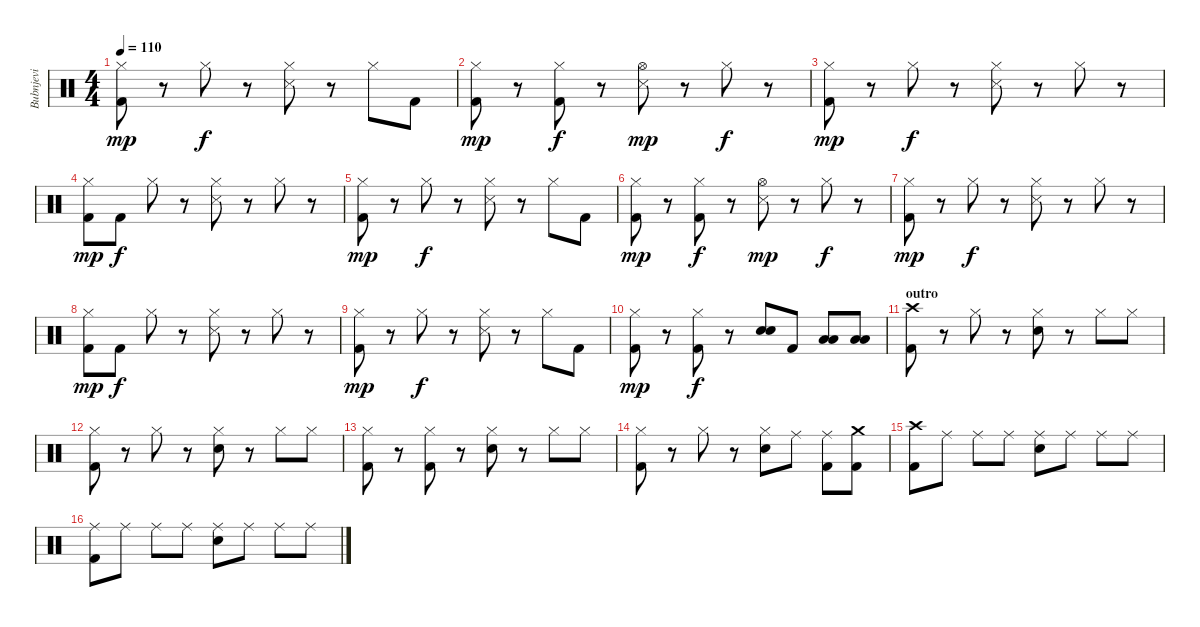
\track ("Bubnjevi" "Bubnjevi") {instrument percussion}
\staff {score}
\articulation defaults
\ts (4 4)
\tempo 110
\clef neutral
\ks c
("Hi-Hat (closed)" "Kick (hit) 2").8{dy mp} r.8 "Hi-Hat (closed)".8{dy f} r.8 ("Hi-Hat (closed)" "Snare (side stick) 3").8 r.8 "Hi-Hat (closed)".8 "Kick (hit) 2".8 |
("Hi-Hat (closed)" "Kick (hit) 2").8{dy mp} r.8 ("Hi-Hat (closed)" "Kick (hit) 2").8{dy f} r.8 ("Hi-Hat (open)" "Snare (side stick) 3").8{dy mp} r.8 "Hi-Hat (closed)".8{dy f} r.8 |
("Hi-Hat (closed)" "Kick (hit) 2").8{dy mp} r.8 "Hi-Hat (closed)".8{dy f} r.8 ("Hi-Hat (closed)" "Snare (side stick) 3").8 r.8 "Hi-Hat (closed)".8 r.8 |
("Hi-Hat (closed)" "Kick (hit) 2").8{dy mp} "Kick (hit) 2".8{dy f} "Hi-Hat (closed)".8 r.8 ("Hi-Hat (closed)" "Snare (side stick) 3").8 r.8 "Hi-Hat (closed)".8 r.8 |
("Hi-Hat (closed)" "Kick (hit) 2").8{dy mp} r.8 "Hi-Hat (closed)".8{dy f} r.8 ("Hi-Hat (closed)" "Snare (side stick) 3").8 r.8 "Hi-Hat (closed)".8 "Kick (hit) 2".8 |
("Hi-Hat (closed)" "Kick (hit) 2").8{dy mp} r.8 ("Hi-Hat (closed)" "Kick (hit) 2").8{dy f} r.8 ("Hi-Hat (open)" "Snare (side stick) 3").8{dy mp} r.8 "Hi-Hat (closed)".8{dy f} r.8 |
("Hi-Hat (closed)" "Kick (hit) 2").8{dy mp} r.8 "Hi-Hat (closed)".8{dy f} r.8 ("Hi-Hat (closed)" "Snare (side stick) 3").8 r.8 "Hi-Hat (closed)".8 r.8 |
("Hi-Hat (closed)" "Kick (hit) 2").8{dy mp} "Kick (hit) 2".8{dy f} "Hi-Hat (closed)".8 r.8 ("Hi-Hat (closed)" "Snare (side stick) 3").8 r.8 "Hi-Hat (closed)".8 r.8 |
("Hi-Hat (closed)" "Kick (hit) 2").8{dy mp} r.8 "Hi-Hat (closed)".8{dy f} r.8 ("Hi-Hat (closed)" "Snare (side stick) 3").8 r.8 "Hi-Hat (closed)".8 "Kick (hit) 2".8 |
("Hi-Hat (closed)" "Kick (hit) 2").8{dy mp} r.8 ("Hi-Hat (closed)" "Kick (hit) 2").8{dy f} r.8 ("Electric Snare (hit)" "Electric Snare (hit)").8{bd 120} "Kick (hit) 2".8 ("Low Tom (hit)" "Low Tom (hit)").8{bd 120} ("Low Tom (hit)" "Low Tom (hit)").8{bd 120} |
\section ("" "outro")
("Crash high (hit)" "Kick (hit) 2").8 r.8 "Hi-Hat (closed)".8 r.8 ("Hi-Hat (closed)" "Electric Snare (hit)").8 r.8 "Hi-Hat (closed)".8 "Hi-Hat (closed)".8 |
("Hi-Hat (closed)" "Kick (hit) 2").8 r.8 "Hi-Hat (closed)".8 r.8 ("Hi-Hat (closed)" "Electric Snare (hit)").8 r.8 "Hi-Hat (closed)".8 "Hi-Hat (closed)".8 |
("Hi-Hat (closed)" "Kick (hit) 2").8 r.8 ("Hi-Hat (closed)" "Kick (hit) 2").8 r.8 ("Hi-Hat (closed)" "Electric Snare (hit)").8 r.8 "Hi-Hat (closed)".8 "Hi-Hat (closed)".8 |
("Hi-Hat (closed)" "Kick (hit) 2").8 r.8 "Hi-Hat (closed)".8 r.8 ("Hi-Hat (closed)" "Electric Snare (hit)").8 "Ride (middle)".8 ("Ride (middle)" "Kick (hit) 2").8 ("Crash medium (hit)" "Kick (hit) 2").8 |
("Crash high (hit)" "Kick (hit) 2").8 "Ride (middle)".8 "Ride (middle)".8 "Ride (middle)".8 ("Ride (middle)" "Electric Snare (hit)").8 "Ride (middle)".8 "Ride (middle)".8 "Ride (middle)".8 |
("Ride (middle)" "Kick (hit) 2").8 "Ride (middle)".8 "Ride (middle)".8 "Ride (middle)".8 ("Ride (middle)" "Electric Snare (hit)").8 "Ride (middle)".8 "Ride (middle)".8 "Ride (middle)".8
